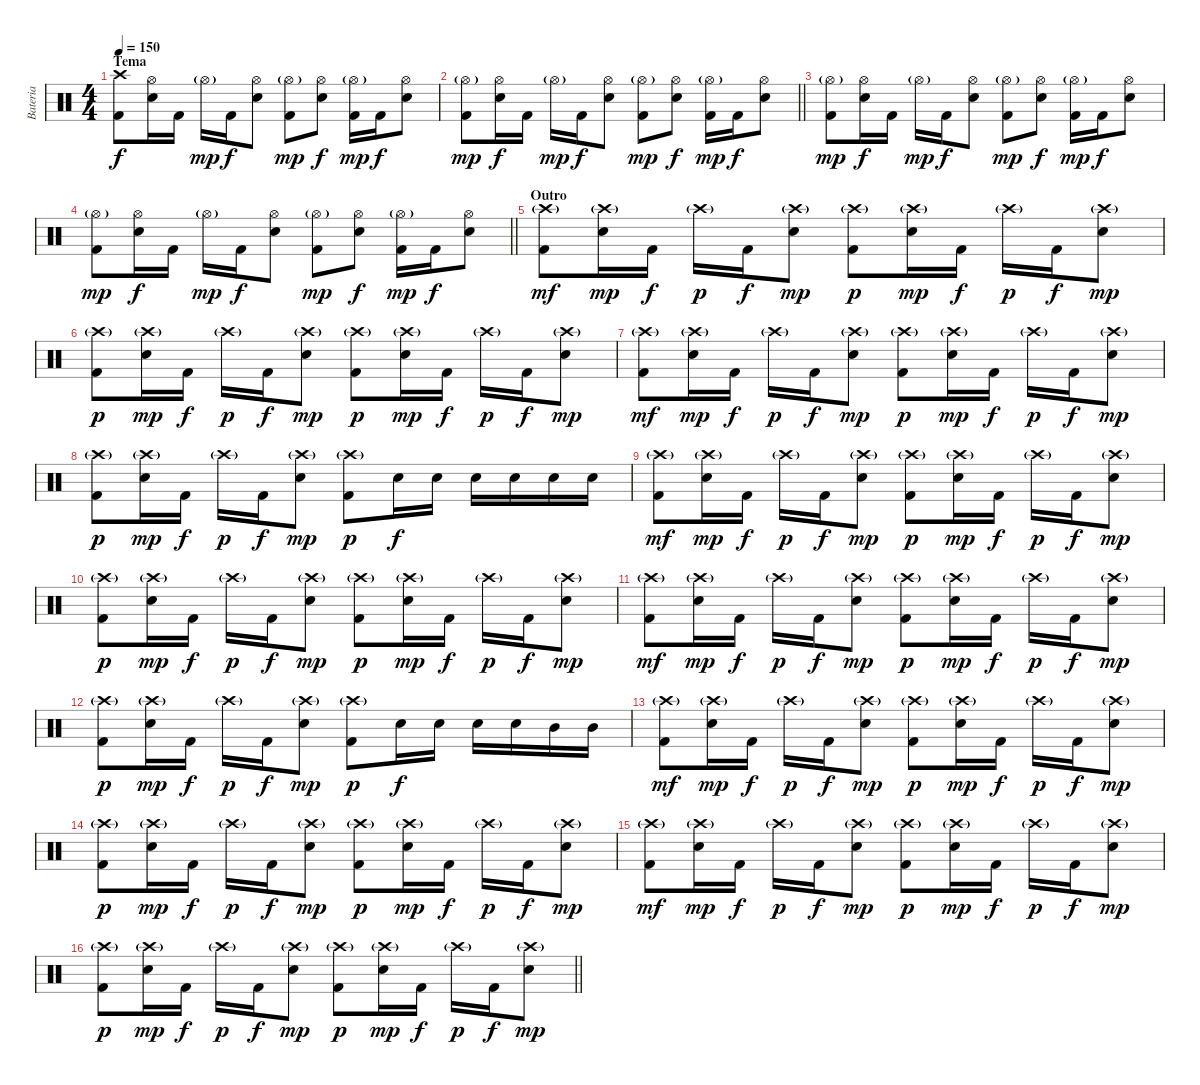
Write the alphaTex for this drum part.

\track ("Bateria" "Bateria") {instrument percussion}
\staff {score}
\articulation defaults
\ts (4 4)
\section ("" "Tema")
\tempo 150
\clef neutral
\ks c
("Crash high (hit)" "Kick (hit) 2").8{dy f} ("Hi-Hat (open)" "Electric Snare (hit)").16 "Kick (hit) 2".16 "Hi-Hat (open)"{g}.16{dy mp} "Kick (hit) 2".16{dy f} ("Hi-Hat (open)" "Electric Snare (hit)").8 ("Hi-Hat (open)"{g} "Kick (hit) 2").8{dy mp} ("Hi-Hat (open)" "Electric Snare (hit)").8{dy f} ("Hi-Hat (open)"{g} "Kick (hit) 2").16{dy mp} "Kick (hit) 2".16{dy f} ("Hi-Hat (open)" "Electric Snare (hit)").8 |
\barLineRight lightlight
("Hi-Hat (open)"{g} "Kick (hit) 2").8{dy mp} ("Hi-Hat (open)" "Electric Snare (hit)").16{dy f} "Kick (hit) 2".16 "Hi-Hat (open)"{g}.16{dy mp} "Kick (hit) 2".16{dy f} ("Hi-Hat (open)" "Electric Snare (hit)").8 ("Hi-Hat (open)"{g} "Kick (hit) 2").8{dy mp} ("Hi-Hat (open)" "Electric Snare (hit)").8{dy f} ("Hi-Hat (open)"{g} "Kick (hit) 2").16{dy mp} "Kick (hit) 2".16{dy f} ("Hi-Hat (open)" "Electric Snare (hit)").8 |
("Hi-Hat (open)"{g} "Kick (hit) 2").8{dy mp} ("Hi-Hat (open)" "Electric Snare (hit)").16{dy f} "Kick (hit) 2".16 "Hi-Hat (open)"{g}.16{dy mp} "Kick (hit) 2".16{dy f} ("Hi-Hat (open)" "Electric Snare (hit)").8 ("Hi-Hat (open)"{g} "Kick (hit) 2").8{dy mp} ("Hi-Hat (open)" "Electric Snare (hit)").8{dy f} ("Hi-Hat (open)"{g} "Kick (hit) 2").16{dy mp} "Kick (hit) 2".16{dy f} ("Hi-Hat (open)" "Electric Snare (hit)").8 |
\barLineRight lightlight
("Hi-Hat (open)"{g} "Kick (hit) 2").8{dy mp} ("Hi-Hat (open)" "Electric Snare (hit)").16{dy f} "Kick (hit) 2".16 "Hi-Hat (open)"{g}.16{dy mp} "Kick (hit) 2".16{dy f} ("Hi-Hat (open)" "Electric Snare (hit)").8 ("Hi-Hat (open)"{g} "Kick (hit) 2").8{dy mp} ("Hi-Hat (open)" "Electric Snare (hit)").8{dy f} ("Hi-Hat (open)"{g} "Kick (hit) 2").16{dy mp} "Kick (hit) 2".16{dy f} ("Hi-Hat (open)" "Electric Snare (hit)").8 |
\section ("" "Outro")
("Crash high (hit)"{g} "Kick (hit) 2").8{dy mf} ("Crash high (hit)"{g} "Electric Snare (hit)").16{dy mp} "Kick (hit) 2".16{dy f} "Crash high (hit)"{g}.16{dy p} "Kick (hit) 2".16{dy f} ("Crash high (hit)"{g} "Electric Snare (hit)").8{dy mp} ("Crash high (hit)"{g} "Kick (hit) 2").8{dy p} ("Crash high (hit)"{g} "Electric Snare (hit)").16{dy mp} "Kick (hit) 2".16{dy f} "Crash high (hit)"{g}.16{dy p} "Kick (hit) 2".16{dy f} ("Crash high (hit)"{g} "Electric Snare (hit)").8{dy mp} |
("Crash high (hit)"{g} "Kick (hit) 2").8{dy p} ("Crash high (hit)"{g} "Electric Snare (hit)").16{dy mp} "Kick (hit) 2".16{dy f} "Crash high (hit)"{g}.16{dy p} "Kick (hit) 2".16{dy f} ("Crash high (hit)"{g} "Electric Snare (hit)").8{dy mp} ("Crash high (hit)"{g} "Kick (hit) 2").8{dy p} ("Crash high (hit)"{g} "Electric Snare (hit)").16{dy mp} "Kick (hit) 2".16{dy f} "Crash high (hit)"{g}.16{dy p} "Kick (hit) 2".16{dy f} ("Crash high (hit)"{g} "Electric Snare (hit)").8{dy mp} |
("Crash high (hit)"{g} "Kick (hit) 2").8{dy mf} ("Crash high (hit)"{g} "Electric Snare (hit)").16{dy mp} "Kick (hit) 2".16{dy f} "Crash high (hit)"{g}.16{dy p} "Kick (hit) 2".16{dy f} ("Crash high (hit)"{g} "Electric Snare (hit)").8{dy mp} ("Crash high (hit)"{g} "Kick (hit) 2").8{dy p} ("Crash high (hit)"{g} "Electric Snare (hit)").16{dy mp} "Kick (hit) 2".16{dy f} "Crash high (hit)"{g}.16{dy p} "Kick (hit) 2".16{dy f} ("Crash high (hit)"{g} "Electric Snare (hit)").8{dy mp} |
("Crash high (hit)"{g} "Kick (hit) 2").8{dy p} ("Crash high (hit)"{g} "Electric Snare (hit)").16{dy mp} "Kick (hit) 2".16{dy f} "Crash high (hit)"{g}.16{dy p} "Kick (hit) 2".16{dy f} ("Crash high (hit)"{g} "Electric Snare (hit)").8{dy mp} ("Crash high (hit)"{g} "Kick (hit) 2").8{dy p} "Electric Snare (hit)".16{dy f} "Electric Snare (hit)".16 "Electric Snare (hit)".16 "Electric Snare (hit)".16 "Electric Snare (hit)".16 "Electric Snare (hit)".16 |
("Crash high (hit)"{g} "Kick (hit) 2").8{dy mf} ("Crash high (hit)"{g} "Electric Snare (hit)").16{dy mp} "Kick (hit) 2".16{dy f} "Crash high (hit)"{g}.16{dy p} "Kick (hit) 2".16{dy f} ("Crash high (hit)"{g} "Electric Snare (hit)").8{dy mp} ("Crash high (hit)"{g} "Kick (hit) 2").8{dy p} ("Crash high (hit)"{g} "Electric Snare (hit)").16{dy mp} "Kick (hit) 2".16{dy f} "Crash high (hit)"{g}.16{dy p} "Kick (hit) 2".16{dy f} ("Crash high (hit)"{g} "Electric Snare (hit)").8{dy mp} |
("Crash high (hit)"{g} "Kick (hit) 2").8{dy p} ("Crash high (hit)"{g} "Electric Snare (hit)").16{dy mp} "Kick (hit) 2".16{dy f} "Crash high (hit)"{g}.16{dy p} "Kick (hit) 2".16{dy f} ("Crash high (hit)"{g} "Electric Snare (hit)").8{dy mp} ("Crash high (hit)"{g} "Kick (hit) 2").8{dy p} ("Crash high (hit)"{g} "Electric Snare (hit)").16{dy mp} "Kick (hit) 2".16{dy f} "Crash high (hit)"{g}.16{dy p} "Kick (hit) 2".16{dy f} ("Crash high (hit)"{g} "Electric Snare (hit)").8{dy mp} |
("Crash high (hit)"{g} "Kick (hit) 2").8{dy mf} ("Crash high (hit)"{g} "Electric Snare (hit)").16{dy mp} "Kick (hit) 2".16{dy f} "Crash high (hit)"{g}.16{dy p} "Kick (hit) 2".16{dy f} ("Crash high (hit)"{g} "Electric Snare (hit)").8{dy mp} ("Crash high (hit)"{g} "Kick (hit) 2").8{dy p} ("Crash high (hit)"{g} "Electric Snare (hit)").16{dy mp} "Kick (hit) 2".16{dy f} "Crash high (hit)"{g}.16{dy p} "Kick (hit) 2".16{dy f} ("Crash high (hit)"{g} "Electric Snare (hit)").8{dy mp} |
("Crash high (hit)"{g} "Kick (hit) 2").8{dy p} ("Crash high (hit)"{g} "Electric Snare (hit)").16{dy mp} "Kick (hit) 2".16{dy f} "Crash high (hit)"{g}.16{dy p} "Kick (hit) 2".16{dy f} ("Crash high (hit)"{g} "Electric Snare (hit)").8{dy mp} ("Crash high (hit)"{g} "Kick (hit) 2").8{dy p} "Electric Snare (hit)".16{dy f} "Electric Snare (hit)".16 "Electric Snare (hit)".16 "Electric Snare (hit)".16 "Mid Tom (hit)".16 "Mid Tom (hit)".16 |
("Crash high (hit)"{g} "Kick (hit) 2").8{dy mf} ("Crash high (hit)"{g} "Electric Snare (hit)").16{dy mp} "Kick (hit) 2".16{dy f} "Crash high (hit)"{g}.16{dy p} "Kick (hit) 2".16{dy f} ("Crash high (hit)"{g} "Electric Snare (hit)").8{dy mp} ("Crash high (hit)"{g} "Kick (hit) 2").8{dy p} ("Crash high (hit)"{g} "Electric Snare (hit)").16{dy mp} "Kick (hit) 2".16{dy f} "Crash high (hit)"{g}.16{dy p} "Kick (hit) 2".16{dy f} ("Crash high (hit)"{g} "Electric Snare (hit)").8{dy mp} |
("Crash high (hit)"{g} "Kick (hit) 2").8{dy p} ("Crash high (hit)"{g} "Electric Snare (hit)").16{dy mp} "Kick (hit) 2".16{dy f} "Crash high (hit)"{g}.16{dy p} "Kick (hit) 2".16{dy f} ("Crash high (hit)"{g} "Electric Snare (hit)").8{dy mp} ("Crash high (hit)"{g} "Kick (hit) 2").8{dy p} ("Crash high (hit)"{g} "Electric Snare (hit)").16{dy mp} "Kick (hit) 2".16{dy f} "Crash high (hit)"{g}.16{dy p} "Kick (hit) 2".16{dy f} ("Crash high (hit)"{g} "Electric Snare (hit)").8{dy mp} |
("Crash high (hit)"{g} "Kick (hit) 2").8{dy mf} ("Crash high (hit)"{g} "Electric Snare (hit)").16{dy mp} "Kick (hit) 2".16{dy f} "Crash high (hit)"{g}.16{dy p} "Kick (hit) 2".16{dy f} ("Crash high (hit)"{g} "Electric Snare (hit)").8{dy mp} ("Crash high (hit)"{g} "Kick (hit) 2").8{dy p} ("Crash high (hit)"{g} "Electric Snare (hit)").16{dy mp} "Kick (hit) 2".16{dy f} "Crash high (hit)"{g}.16{dy p} "Kick (hit) 2".16{dy f} ("Crash high (hit)"{g} "Electric Snare (hit)").8{dy mp} |
\barLineRight lightlight
("Crash high (hit)"{g} "Kick (hit) 2").8{dy p} ("Crash high (hit)"{g} "Electric Snare (hit)").16{dy mp} "Kick (hit) 2".16{dy f} "Crash high (hit)"{g}.16{dy p} "Kick (hit) 2".16{dy f} ("Crash high (hit)"{g} "Electric Snare (hit)").8{dy mp} ("Crash high (hit)"{g} "Kick (hit) 2").8{dy p} ("Crash high (hit)"{g} "Electric Snare (hit)").16{dy mp} "Kick (hit) 2".16{dy f} "Crash high (hit)"{g}.16{dy p} "Kick (hit) 2".16{dy f} ("Crash high (hit)"{g} "Electric Snare (hit)").8{dy mp}
